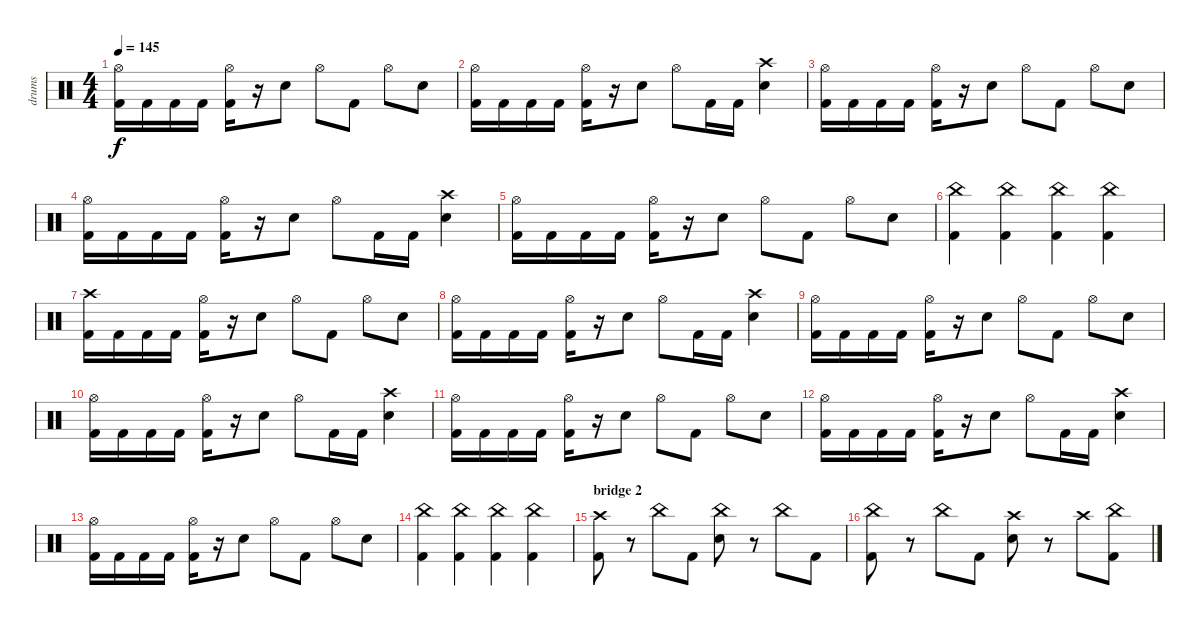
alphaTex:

\track ("drums" "drums") {instrument percussion}
\staff {score}
\articulation defaults
\ts (4 4)
\tempo 145
\clef neutral
\ks c
("Kick (hit) 2" "Hi-Hat (open)").16{dy f} "Kick (hit) 2".16 "Kick (hit) 2".16 "Kick (hit) 2".16 ("Kick (hit) 2" "Hi-Hat (open)").16 r.16 "Snare (hit) 2".8 "Hi-Hat (open)".8 "Kick (hit) 2".8 "Hi-Hat (open)".8 "Snare (hit) 2".8 |
("Kick (hit) 2" "Hi-Hat (open)").16 "Kick (hit) 2".16 "Kick (hit) 2".16 "Kick (hit) 2".16 ("Kick (hit) 2" "Hi-Hat (open)").16 r.16 "Snare (hit) 2".8 "Hi-Hat (open)".8 "Kick (hit) 2".16 "Kick (hit) 2".16 ("Snare (hit) 2" "Crash high (hit)").4 |
("Kick (hit) 2" "Hi-Hat (open)").16 "Kick (hit) 2".16 "Kick (hit) 2".16 "Kick (hit) 2".16 ("Kick (hit) 2" "Hi-Hat (open)").16 r.16 "Snare (hit) 2".8 "Hi-Hat (open)".8 "Kick (hit) 2".8 "Hi-Hat (open)".8 "Snare (hit) 2".8 |
("Kick (hit) 2" "Hi-Hat (open)").16 "Kick (hit) 2".16 "Kick (hit) 2".16 "Kick (hit) 2".16 ("Kick (hit) 2" "Hi-Hat (open)").16 r.16 "Snare (hit) 2".8 "Hi-Hat (open)".8 "Kick (hit) 2".16 "Kick (hit) 2".16 ("Snare (hit) 2" "Crash high (hit)").4 |
("Kick (hit) 2" "Hi-Hat (open)").16 "Kick (hit) 2".16 "Kick (hit) 2".16 "Kick (hit) 2".16 ("Kick (hit) 2" "Hi-Hat (open)").16 r.16 "Snare (hit) 2".8 "Hi-Hat (open)".8 "Kick (hit) 2".8 "Hi-Hat (open)".8 "Snare (hit) 2".8 |
("Kick (hit) 2" "China (hit)").4 ("Kick (hit) 2" "China (hit)").4 ("Kick (hit) 2" "China (hit)").4 ("Kick (hit) 2" "China (hit)").4 |
("Kick (hit) 2" "Crash high (hit)").16 "Kick (hit) 2".16 "Kick (hit) 2".16 "Kick (hit) 2".16 ("Kick (hit) 2" "Hi-Hat (open)").16 r.16 "Snare (hit) 2".8 "Hi-Hat (open)".8 "Kick (hit) 2".8 "Hi-Hat (open)".8 "Snare (hit) 2".8 |
("Kick (hit) 2" "Hi-Hat (open)").16 "Kick (hit) 2".16 "Kick (hit) 2".16 "Kick (hit) 2".16 ("Kick (hit) 2" "Hi-Hat (open)").16 r.16 "Snare (hit) 2".8 "Hi-Hat (open)".8 "Kick (hit) 2".16 "Kick (hit) 2".16 ("Snare (hit) 2" "Crash high (hit)").4 |
("Kick (hit) 2" "Hi-Hat (open)").16 "Kick (hit) 2".16 "Kick (hit) 2".16 "Kick (hit) 2".16 ("Kick (hit) 2" "Hi-Hat (open)").16 r.16 "Snare (hit) 2".8 "Hi-Hat (open)".8 "Kick (hit) 2".8 "Hi-Hat (open)".8 "Snare (hit) 2".8 |
("Kick (hit) 2" "Hi-Hat (open)").16 "Kick (hit) 2".16 "Kick (hit) 2".16 "Kick (hit) 2".16 ("Kick (hit) 2" "Hi-Hat (open)").16 r.16 "Snare (hit) 2".8 "Hi-Hat (open)".8 "Kick (hit) 2".16 "Kick (hit) 2".16 ("Snare (hit) 2" "Crash high (hit)").4 |
("Kick (hit) 2" "Hi-Hat (open)").16 "Kick (hit) 2".16 "Kick (hit) 2".16 "Kick (hit) 2".16 ("Kick (hit) 2" "Hi-Hat (open)").16 r.16 "Snare (hit) 2".8 "Hi-Hat (open)".8 "Kick (hit) 2".8 "Hi-Hat (open)".8 "Snare (hit) 2".8 |
("Kick (hit) 2" "Hi-Hat (open)").16 "Kick (hit) 2".16 "Kick (hit) 2".16 "Kick (hit) 2".16 ("Kick (hit) 2" "Hi-Hat (open)").16 r.16 "Snare (hit) 2".8 "Hi-Hat (open)".8 "Kick (hit) 2".16 "Kick (hit) 2".16 ("Snare (hit) 2" "Crash high (hit)").4 |
("Kick (hit) 2" "Hi-Hat (open)").16 "Kick (hit) 2".16 "Kick (hit) 2".16 "Kick (hit) 2".16 ("Kick (hit) 2" "Hi-Hat (open)").16 r.16 "Snare (hit) 2".8 "Hi-Hat (open)".8 "Kick (hit) 2".8 "Hi-Hat (open)".8 "Snare (hit) 2".8 |
("Kick (hit) 2" "China (hit)").4 ("Kick (hit) 2" "China (hit)").4 ("Kick (hit) 2" "China (hit)").4 ("Kick (hit) 2" "China (hit)").4 |
\section ("" "bridge 2")
("Kick (hit) 2" "Crash high (hit)").8 r.8 "China (hit)".8 "Kick (hit) 2".8 ("Snare (hit) 2" "China (hit)").8 r.8 "China (hit)".8 "Kick (hit) 2".8 |
("Kick (hit) 2" "China (hit)").8 r.8 "China (hit)".8 "Kick (hit) 2".8 ("Snare (hit) 2" "Crash high (hit)").8 r.8 "Crash high (hit)".8 ("Kick (hit) 2" "China (hit)").8
